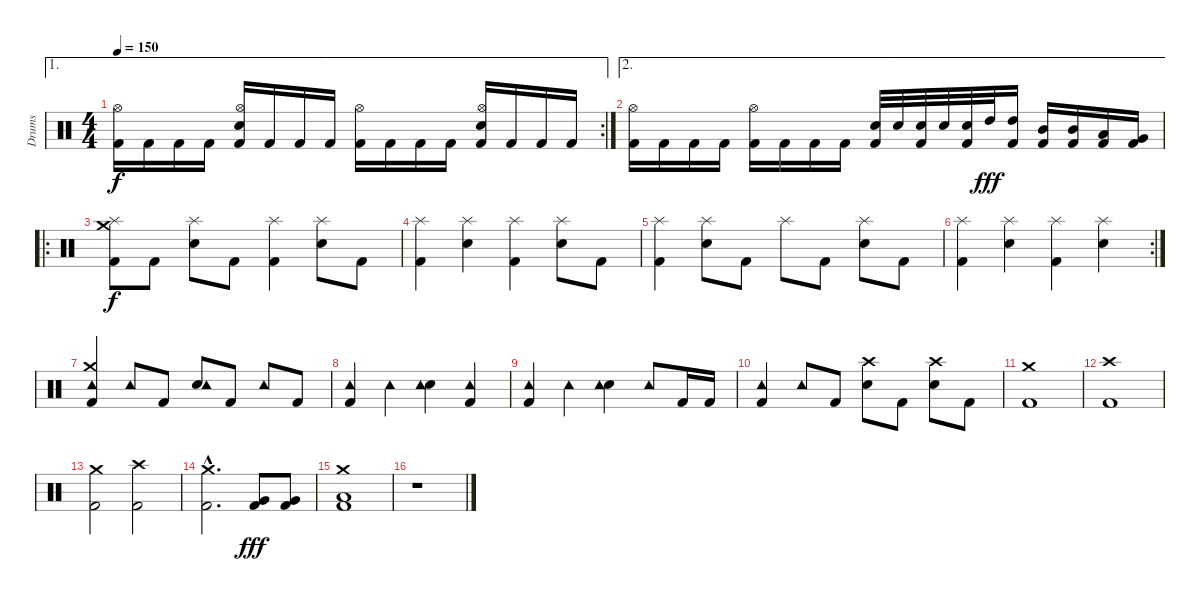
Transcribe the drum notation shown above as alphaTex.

\track ("Drums" "Drums") {instrument percussion}
\staff {score}
\articulation defaults
\ae 1
\rc 2
\ts (4 4)
\tempo 150
\clef neutral
\ks c
("Kick (hit) 2" "Hi-Hat (open)").16{dy f} "Kick (hit) 2".16 "Kick (hit) 2".16 "Kick (hit) 2".16 ("Kick (hit) 2" "Electric Snare (hit)" "Hi-Hat (open)").16 "Kick (hit) 2".16 "Kick (hit) 2".16 "Kick (hit) 2".16 ("Kick (hit) 2" "Hi-Hat (open)").16 "Kick (hit) 2".16 "Kick (hit) 2".16 "Kick (hit) 2".16 ("Kick (hit) 2" "Electric Snare (hit)" "Hi-Hat (open)").16 "Kick (hit) 2".16 "Kick (hit) 2".16 "Kick (hit) 2".16 |
\ae 2
("Kick (hit) 2" "Hi-Hat (open)").16 "Kick (hit) 2".16 "Kick (hit) 2".16 "Kick (hit) 2".16 ("Kick (hit) 2" "Hi-Hat (open)").16 "Kick (hit) 2".16 "Kick (hit) 2".16 "Kick (hit) 2".16 ("Kick (hit) 2" "Electric Snare (hit)").32 "Electric Snare (hit)".32 ("Kick (hit) 2" "Electric Snare (hit)").32 "Electric Snare (hit)".32 ("Kick (hit) 2" "Electric Snare (hit)").32 "High Tom (hit)".32{dy fff} ("Kick (hit) 2" "High Tom (hit)").16 ("Kick (hit) 2" "Mid Tom (hit)").16 ("Kick (hit) 2" "Mid Tom (hit)").16 ("Kick (hit) 2" "Low Tom (hit)").16 ("Kick (hit) 2" "Very Low Tom (hit)").16 |
\ro
("Kick (hit) 2" "Splash (hit)" "Crash medium (hit)").8{dy f} "Kick (hit) 2".8 ("Electric Snare (hit)" "Splash (hit)").8 "Kick (hit) 2".8 ("Kick (hit) 2" "Splash (hit)").4 ("Electric Snare (hit)" "Splash (hit)").8 "Kick (hit) 2".8 |
("Kick (hit) 2" "Splash (hit)").4 ("Electric Snare (hit)" "Splash (hit)").4 ("Kick (hit) 2" "Splash (hit)").4 ("Electric Snare (hit)" "Splash (hit)").8 "Kick (hit) 2".8 |
("Kick (hit) 2" "Splash (hit)").4 ("Electric Snare (hit)" "Splash (hit)").8 "Kick (hit) 2".8 "Splash (hit)".8 "Kick (hit) 2".8 ("Electric Snare (hit)" "Splash (hit)").8 "Kick (hit) 2".8 |
\rc 2
("Kick (hit) 2" "Splash (hit)").4 ("Electric Snare (hit)" "Splash (hit)").4 ("Kick (hit) 2" "Splash (hit)").4 ("Electric Snare (hit)" "Splash (hit)").4 |
("Kick (hit) 2" "Tambourine (hit)" "Crash medium (hit)").4 "Tambourine (hit)".8 "Kick (hit) 2".8 ("Electric Snare (hit)" "Tambourine (hit)").8 "Kick (hit) 2".8 "Tambourine (hit)".8 "Kick (hit) 2".8 |
("Kick (hit) 2" "Tambourine (hit)").4 "Tambourine (hit)".4 ("Electric Snare (hit)" "Tambourine (hit)").4 ("Kick (hit) 2" "Tambourine (hit)").4 |
("Kick (hit) 2" "Tambourine (hit)").4 "Tambourine (hit)".4 ("Electric Snare (hit)" "Tambourine (hit)").4 "Tambourine (hit)".8 "Kick (hit) 2".16 "Kick (hit) 2".16 |
("Kick (hit) 2" "Tambourine (hit)").4 "Tambourine (hit)".8 "Kick (hit) 2".8 ("Electric Snare (hit)" "Crash high (hit)").8 "Kick (hit) 2".8 ("Electric Snare (hit)" "Crash high (hit)").8 "Kick (hit) 2".8 |
("Kick (hit) 2" "Crash medium (hit)").1 |
("Kick (hit) 2" "Crash high (hit)").1 |
("Kick (hit) 2" "Crash medium (hit)").2 ("Kick (hit) 2" "Crash high (hit)").2 |
("Kick (hit) 2"{hac} "Crash medium (hit)"{hac}).2{d} ("Kick (hit) 2" "Very Low Tom (hit)").8{dy fff} ("Kick (hit) 2" "Very Low Tom (hit)").8 |
("Kick (hit) 2" "Low Tom (hit)" "Crash medium (hit)").1 |
r.1
